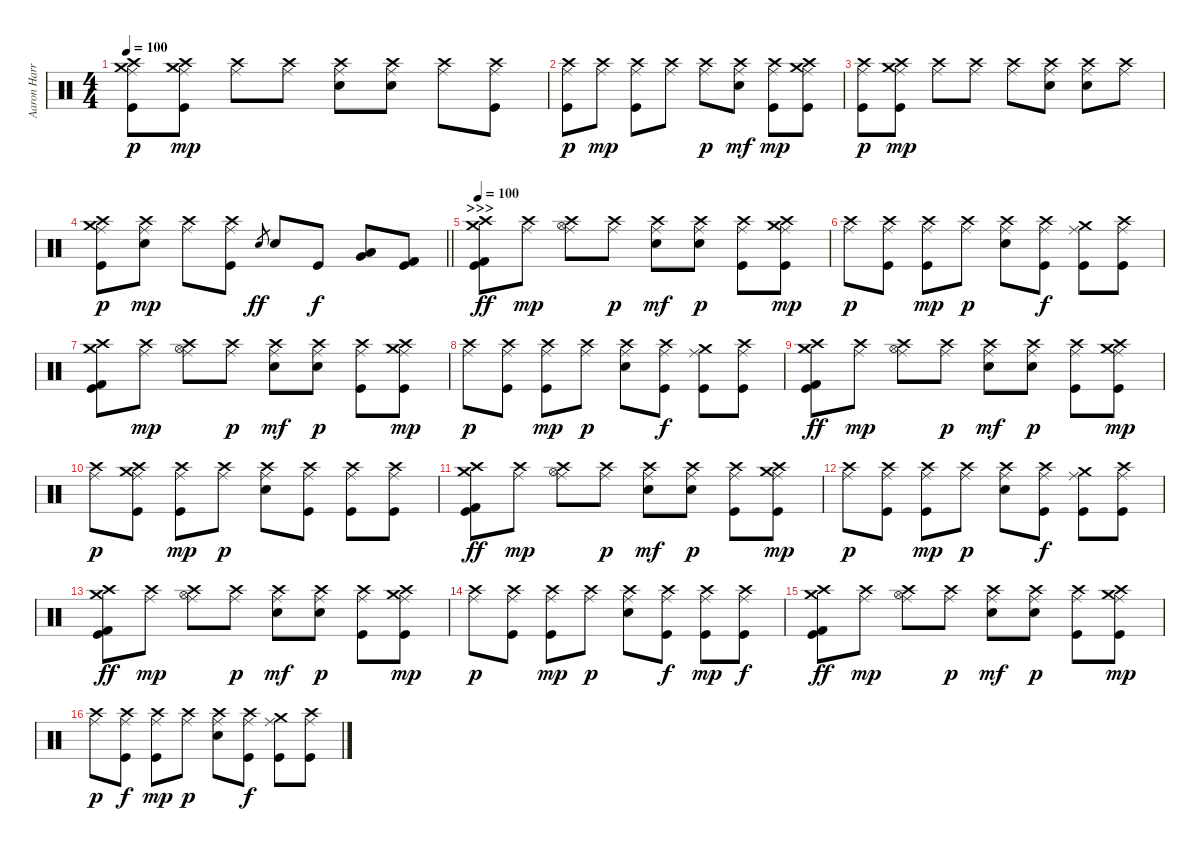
\track ("Aaron Harris" "Aaron Harr") {instrument percussion}
\staff {score}
\articulation defaults
\ts (4 4)
\tempo 100
\clef neutral
\ks c
("Crash medium (hit)" "Crash high (hit)" "Ride (middle)" "Kick (hit)").8{dy p} ("Crash medium (hit)" "Crash high (hit)" "Ride (middle)" "Kick (hit)").8{dy mp} ("Crash high (hit)" "Ride (middle)").8 ("Crash high (hit)" "Ride (middle)").8 ("Crash high (hit)" "Ride (middle)" "Electric Snare (hit)").8 ("Crash high (hit)" "Ride (middle)" "Electric Snare (hit)").8 ("Crash high (hit)" "Ride (middle)").8 ("Crash high (hit)" "Ride (middle)" "Kick (hit)").8 |
("Crash high (hit)" "Ride (middle)" "Kick (hit)").8{dy p} ("Crash high (hit)" "Ride (middle)").8{dy mp} ("Crash high (hit)" "Ride (middle)" "Kick (hit)").8 ("Crash high (hit)" "Ride (middle)").8 ("Crash high (hit)" "Ride (middle)").8{dy p} ("Crash high (hit)" "Ride (middle)" "Electric Snare (hit)").8{dy mf} ("Crash high (hit)" "Ride (middle)" "Kick (hit)").8{dy mp} ("Crash medium (hit)" "Crash high (hit)" "Ride (middle)" "Kick (hit)").8 |
("Crash high (hit)" "Ride (middle)" "Kick (hit)").8{dy p} ("Crash medium (hit)" "Crash high (hit)" "Ride (middle)" "Kick (hit)").8{dy mp} ("Crash high (hit)" "Ride (middle)").8 ("Crash high (hit)" "Ride (middle)").8 ("Crash high (hit)" "Ride (middle)").8 ("Crash high (hit)" "Ride (middle)" "Electric Snare (hit)").8 ("Crash high (hit)" "Ride (middle)" "Electric Snare (hit)").8 ("Crash high (hit)" "Ride (middle)").8 |
\barLineRight lightlight
("Crash medium (hit)" "Crash high (hit)" "Ride (middle)" "Kick (hit)").8{dy p} ("Crash high (hit)" "Ride (middle)" "Electric Snare (hit)").8{dy mp} ("Crash high (hit)" "Ride (middle)").8 ("Crash high (hit)" "Ride (middle)" "Kick (hit)").8 "Electric Snare (hit)".8{gr dy ff} "Electric Snare (hit)".8 "Kick (hit)".8{dy f} ("Very Low Tom (hit)" "Low Floor Tom (hit)").8 ("Kick (hit) 2" "Kick (hit)").8 |
\section ("" ">>>")
\tempo 126
\tempo 100
("Crash medium (hit)" "Crash high (hit)" "Kick (hit) 2" "Kick (hit)").8{dy ff} ("Crash high (hit)" "Ride (middle)").8{dy mp} ("Crash high (hit)" "Hi-Hat (open)" "Ride (middle)").8 ("Crash high (hit)" "Ride (middle)").8{dy p} ("Crash high (hit)" "Ride (middle)" "Electric Snare (hit)").8{dy mf} ("Crash high (hit)" "Ride (middle)" "Electric Snare (hit)").8{dy p} ("Crash high (hit)" "Ride (middle)" "Kick (hit)").8 ("Crash medium (hit)" "Crash high (hit)" "Ride (middle)" "Kick (hit)").8{dy mp} |
("Crash high (hit)" "Ride (middle)").8{dy p} ("Crash high (hit)" "Ride (middle)" "Kick (hit)").8 ("Crash high (hit)" "Ride (middle)" "Kick (hit)").8{dy mp} ("Crash high (hit)" "Ride (middle)").8{dy p} ("Crash high (hit)" "Ride (middle)" "Electric Snare (hit)").8 ("Crash high (hit)" "Ride (middle)" "Kick (hit)").8{dy f} ("Crash medium (hit)" "Ride (middle)" "Kick (hit)").8 ("Crash high (hit)" "Ride (middle)" "Kick (hit)").8 |
("Crash medium (hit)" "Crash high (hit)" "Kick (hit) 2" "Kick (hit)").8 ("Crash high (hit)" "Ride (middle)").8{dy mp} ("Crash high (hit)" "Hi-Hat (open)" "Ride (middle)").8 ("Crash high (hit)" "Ride (middle)").8{dy p} ("Crash high (hit)" "Ride (middle)" "Electric Snare (hit)").8{dy mf} ("Crash high (hit)" "Ride (middle)" "Electric Snare (hit)").8{dy p} ("Crash high (hit)" "Ride (middle)" "Kick (hit)").8 ("Crash medium (hit)" "Crash high (hit)" "Ride (middle)" "Kick (hit)").8{dy mp} |
("Crash high (hit)" "Ride (middle)").8{dy p} ("Crash high (hit)" "Ride (middle)" "Kick (hit)").8 ("Crash high (hit)" "Ride (middle)" "Kick (hit)").8{dy mp} ("Crash high (hit)" "Ride (middle)").8{dy p} ("Crash high (hit)" "Ride (middle)" "Electric Snare (hit)").8 ("Crash high (hit)" "Ride (middle)" "Kick (hit)").8{dy f} ("Crash medium (hit)" "Ride (middle)" "Kick (hit)").8 ("Crash high (hit)" "Ride (middle)" "Kick (hit)").8 |
("Crash medium (hit)" "Crash high (hit)" "Kick (hit) 2" "Kick (hit)").8{dy ff} ("Crash high (hit)" "Ride (middle)").8{dy mp} ("Crash high (hit)" "Hi-Hat (open)" "Ride (middle)").8 ("Crash high (hit)" "Ride (middle)").8{dy p} ("Crash high (hit)" "Ride (middle)" "Electric Snare (hit)").8{dy mf} ("Crash high (hit)" "Ride (middle)" "Electric Snare (hit)").8{dy p} ("Crash high (hit)" "Ride (middle)" "Kick (hit)").8 ("Crash medium (hit)" "Crash high (hit)" "Ride (middle)" "Kick (hit)").8{dy mp} |
("Crash high (hit)" "Ride (middle)").8{dy p} ("Crash medium (hit)" "Crash high (hit)" "Ride (middle)" "Kick (hit)").8 ("Crash high (hit)" "Ride (middle)" "Kick (hit)").8{dy mp} ("Crash high (hit)" "Ride (middle)").8{dy p} ("Crash high (hit)" "Ride (middle)" "Electric Snare (hit)").8 ("Crash high (hit)" "Ride (middle)" "Kick (hit)").8 ("Crash high (hit)" "Ride (middle)" "Kick (hit)").8 ("Crash high (hit)" "Ride (middle)" "Kick (hit)").8 |
("Crash medium (hit)" "Crash high (hit)" "Kick (hit) 2" "Kick (hit)").8{dy ff} ("Crash high (hit)" "Ride (middle)").8{dy mp} ("Crash high (hit)" "Hi-Hat (open)" "Ride (middle)").8 ("Crash high (hit)" "Ride (middle)").8{dy p} ("Crash high (hit)" "Ride (middle)" "Electric Snare (hit)").8{dy mf} ("Crash high (hit)" "Ride (middle)" "Electric Snare (hit)").8{dy p} ("Crash high (hit)" "Ride (middle)" "Kick (hit)").8 ("Crash medium (hit)" "Crash high (hit)" "Ride (middle)" "Kick (hit)").8{dy mp} |
("Crash high (hit)" "Ride (middle)").8{dy p} ("Crash high (hit)" "Ride (middle)" "Kick (hit)").8 ("Crash high (hit)" "Ride (middle)" "Kick (hit)").8{dy mp} ("Crash high (hit)" "Ride (middle)").8{dy p} ("Crash high (hit)" "Ride (middle)" "Electric Snare (hit)").8 ("Crash high (hit)" "Ride (middle)" "Kick (hit)").8{dy f} ("Crash medium (hit)" "Ride (middle)" "Kick (hit)").8 ("Crash high (hit)" "Ride (middle)" "Kick (hit)").8 |
("Crash medium (hit)" "Crash high (hit)" "Kick (hit) 2" "Kick (hit)").8{dy ff} ("Crash high (hit)" "Ride (middle)").8{dy mp} ("Crash high (hit)" "Hi-Hat (open)" "Ride (middle)").8 ("Crash high (hit)" "Ride (middle)").8{dy p} ("Crash high (hit)" "Ride (middle)" "Electric Snare (hit)").8{dy mf} ("Crash high (hit)" "Ride (middle)" "Electric Snare (hit)").8{dy p} ("Crash high (hit)" "Ride (middle)" "Kick (hit)").8 ("Crash medium (hit)" "Crash high (hit)" "Ride (middle)" "Kick (hit)").8{dy mp} |
("Crash high (hit)" "Ride (middle)").8{dy p} ("Crash high (hit)" "Ride (middle)" "Kick (hit)").8 ("Crash high (hit)" "Ride (middle)" "Kick (hit)").8{dy mp} ("Crash high (hit)" "Ride (middle)").8{dy p} ("Crash high (hit)" "Ride (middle)" "Electric Snare (hit)").8 ("Crash high (hit)" "Ride (middle)" "Kick (hit)").8{dy f} ("Crash high (hit)" "Ride (middle)" "Kick (hit)").8{dy mp} ("Crash high (hit)" "Ride (middle)" "Kick (hit)").8{dy f} |
("Crash medium (hit)" "Crash high (hit)" "Kick (hit) 2" "Kick (hit)").8{dy ff} ("Crash high (hit)" "Ride (middle)").8{dy mp} ("Crash high (hit)" "Hi-Hat (open)" "Ride (middle)").8 ("Crash high (hit)" "Ride (middle)").8{dy p} ("Crash high (hit)" "Ride (middle)" "Electric Snare (hit)").8{dy mf} ("Crash high (hit)" "Ride (middle)" "Electric Snare (hit)").8{dy p} ("Crash high (hit)" "Ride (middle)" "Kick (hit)").8 ("Crash medium (hit)" "Crash high (hit)" "Ride (middle)" "Kick (hit)").8{dy mp} |
("Crash high (hit)" "Ride (middle)").8{dy p} ("Crash high (hit)" "Ride (middle)" "Kick (hit)").8{dy f} ("Crash high (hit)" "Ride (middle)" "Kick (hit)").8{dy mp} ("Crash high (hit)" "Ride (middle)").8{dy p} ("Crash high (hit)" "Ride (middle)" "Electric Snare (hit)").8 ("Crash high (hit)" "Ride (middle)" "Kick (hit)").8{dy f} ("Crash medium (hit)" "Ride (middle)" "Kick (hit)").8 ("Crash high (hit)" "Ride (middle)" "Kick (hit)").8
